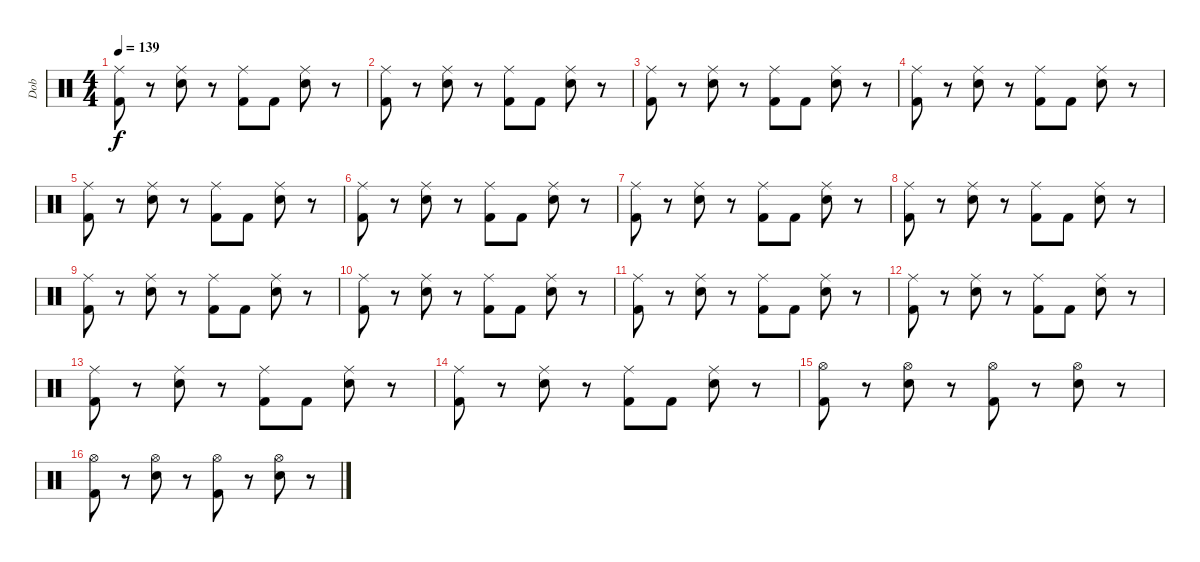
\track ("Dob" "Dob") {instrument percussion}
\staff {score}
\articulation defaults
\ts (4 4)
\tempo 139
\clef neutral
\ks c
("Ride (middle)" "Kick (hit) 2").8{dy f} r.8 ("Ride (middle)" "Electric Snare (hit)").8 r.8 ("Ride (middle)" "Kick (hit) 2").8 "Kick (hit) 2".8 ("Ride (middle)" "Electric Snare (hit)").8 r.8 |
("Ride (middle)" "Kick (hit) 2").8 r.8 ("Ride (middle)" "Electric Snare (hit)").8 r.8 ("Ride (middle)" "Kick (hit) 2").8 "Kick (hit) 2".8 ("Ride (middle)" "Electric Snare (hit)").8 r.8 |
("Ride (middle)" "Kick (hit) 2").8 r.8 ("Ride (middle)" "Electric Snare (hit)").8 r.8 ("Ride (middle)" "Kick (hit) 2").8 "Kick (hit) 2".8 ("Ride (middle)" "Electric Snare (hit)").8 r.8 |
("Ride (middle)" "Kick (hit) 2").8 r.8 ("Ride (middle)" "Electric Snare (hit)").8 r.8 ("Ride (middle)" "Kick (hit) 2").8 "Kick (hit) 2".8 ("Ride (middle)" "Electric Snare (hit)").8 r.8 |
("Ride (middle)" "Kick (hit) 2").8 r.8 ("Ride (middle)" "Electric Snare (hit)").8 r.8 ("Ride (middle)" "Kick (hit) 2").8 "Kick (hit) 2".8 ("Ride (middle)" "Electric Snare (hit)").8 r.8 |
("Ride (middle)" "Kick (hit) 2").8 r.8 ("Ride (middle)" "Electric Snare (hit)").8 r.8 ("Ride (middle)" "Kick (hit) 2").8 "Kick (hit) 2".8 ("Ride (middle)" "Electric Snare (hit)").8 r.8 |
("Ride (middle)" "Kick (hit) 2").8 r.8 ("Ride (middle)" "Electric Snare (hit)").8 r.8 ("Ride (middle)" "Kick (hit) 2").8 "Kick (hit) 2".8 ("Ride (middle)" "Electric Snare (hit)").8 r.8 |
("Ride (middle)" "Kick (hit) 2").8 r.8 ("Ride (middle)" "Electric Snare (hit)").8 r.8 ("Ride (middle)" "Kick (hit) 2").8 "Kick (hit) 2".8 ("Ride (middle)" "Electric Snare (hit)").8 r.8 |
("Ride (middle)" "Kick (hit) 2").8 r.8 ("Ride (middle)" "Electric Snare (hit)").8 r.8 ("Ride (middle)" "Kick (hit) 2").8 "Kick (hit) 2".8 ("Ride (middle)" "Electric Snare (hit)").8 r.8 |
("Ride (middle)" "Kick (hit) 2").8 r.8 ("Ride (middle)" "Electric Snare (hit)").8 r.8 ("Ride (middle)" "Kick (hit) 2").8 "Kick (hit) 2".8 ("Ride (middle)" "Electric Snare (hit)").8 r.8 |
("Ride (middle)" "Kick (hit) 2").8 r.8 ("Ride (middle)" "Electric Snare (hit)").8 r.8 ("Ride (middle)" "Kick (hit) 2").8 "Kick (hit) 2".8 ("Ride (middle)" "Electric Snare (hit)").8 r.8 |
("Ride (middle)" "Kick (hit) 2").8 r.8 ("Ride (middle)" "Electric Snare (hit)").8 r.8 ("Ride (middle)" "Kick (hit) 2").8 "Kick (hit) 2".8 ("Ride (middle)" "Electric Snare (hit)").8 r.8 |
("Ride (middle)" "Kick (hit) 2").8 r.8 ("Ride (middle)" "Electric Snare (hit)").8 r.8 ("Ride (middle)" "Kick (hit) 2").8 "Kick (hit) 2".8 ("Ride (middle)" "Electric Snare (hit)").8 r.8 |
("Ride (middle)" "Kick (hit) 2").8 r.8 ("Ride (middle)" "Electric Snare (hit)").8 r.8 ("Ride (middle)" "Kick (hit) 2").8 "Kick (hit) 2".8 ("Ride (middle)" "Electric Snare (hit)").8 r.8 |
("Hi-Hat (open)" "Kick (hit) 2").8 r.8 ("Hi-Hat (open)" "Electric Snare (hit)").8 r.8 ("Hi-Hat (open)" "Kick (hit) 2").8 r.8 ("Hi-Hat (open)" "Electric Snare (hit)").8 r.8 |
("Hi-Hat (open)" "Kick (hit) 2").8 r.8 ("Hi-Hat (open)" "Electric Snare (hit)").8 r.8 ("Hi-Hat (open)" "Kick (hit) 2").8 r.8 ("Hi-Hat (open)" "Electric Snare (hit)").8 r.8
